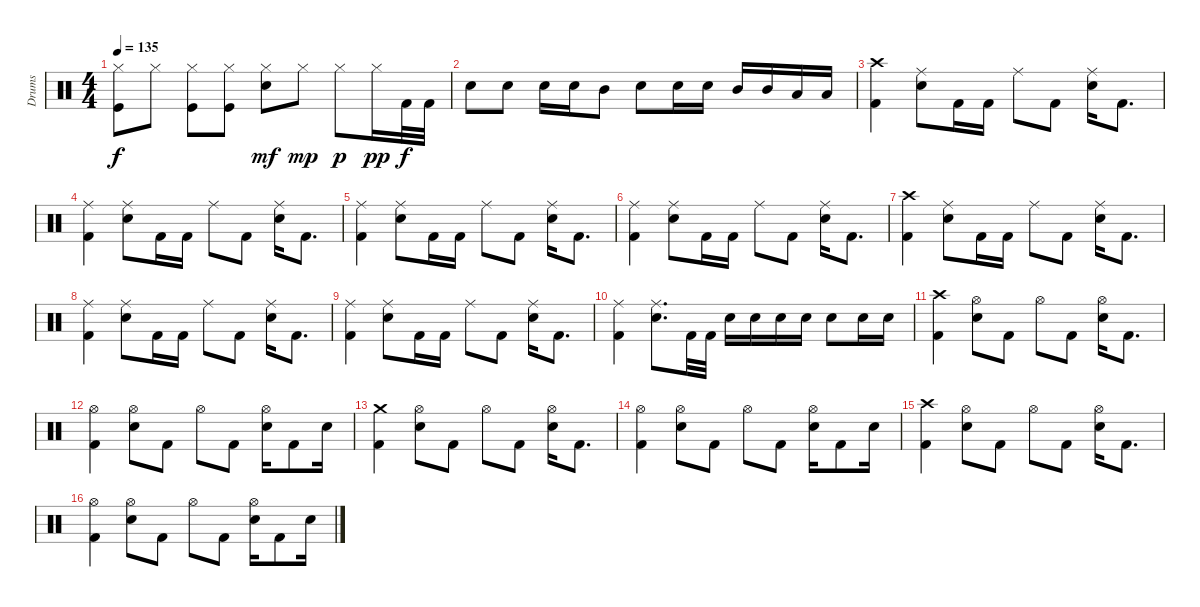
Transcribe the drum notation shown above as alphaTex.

\track ("Drums" "Drums") {instrument percussion}
\staff {score}
\articulation defaults
\ts (4 4)
\tempo 135
\clef neutral
\ks c
("Hi-Hat (closed)" "Kick (hit)").8{dy f} "Hi-Hat (closed)".8 ("Hi-Hat (closed)" "Kick (hit)").8 ("Hi-Hat (closed)" "Kick (hit)").8 ("Hi-Hat (closed)" "Snare (hit) 2").8{dy mf} "Hi-Hat (closed)".8{dy mp} "Hi-Hat (closed)".8{dy p} "Hi-Hat (closed)".16{dy pp} "Kick (hit) 2".32{dy f} "Kick (hit) 2".32 |
"Electric Snare (hit)".8 "Electric Snare (hit)".8 "Electric Snare (hit)".16 "Electric Snare (hit)".16 "Mid Tom (hit)".8 "Electric Snare (hit)".8 "Electric Snare (hit)".16 "Electric Snare (hit)".16 "Mid Tom (hit)".16 "Mid Tom (hit)".16 "Low Tom (hit)".16 "Low Tom (hit)".16 |
("Crash high (hit)" "Kick (hit) 2").4 ("Ride (middle)" "Electric Snare (hit)").8 "Kick (hit) 2".16 "Kick (hit) 2".16 "Ride (middle)".8 "Kick (hit) 2".8 ("Ride (middle)" "Electric Snare (hit)").16 "Kick (hit) 2".8{d} |
("Ride (middle)" "Kick (hit) 2").4 ("Ride (middle)" "Electric Snare (hit)").8 "Kick (hit) 2".16 "Kick (hit) 2".16 "Ride (middle)".8 "Kick (hit) 2".8 ("Ride (middle)" "Electric Snare (hit)").16 "Kick (hit) 2".8{d} |
("Ride (middle)" "Kick (hit) 2").4 ("Ride (middle)" "Electric Snare (hit)").8 "Kick (hit) 2".16 "Kick (hit) 2".16 "Ride (middle)".8 "Kick (hit) 2".8 ("Ride (middle)" "Electric Snare (hit)").16 "Kick (hit) 2".8{d} |
("Ride (middle)" "Kick (hit) 2").4 ("Ride (middle)" "Electric Snare (hit)").8 "Kick (hit) 2".16 "Kick (hit) 2".16 "Ride (middle)".8 "Kick (hit) 2".8 ("Ride (middle)" "Electric Snare (hit)").16 "Kick (hit) 2".8{d} |
("Crash high (hit)" "Kick (hit) 2").4 ("Ride (middle)" "Electric Snare (hit)").8 "Kick (hit) 2".16 "Kick (hit) 2".16 "Ride (middle)".8 "Kick (hit) 2".8 ("Ride (middle)" "Electric Snare (hit)").16 "Kick (hit) 2".8{d} |
("Ride (middle)" "Kick (hit) 2").4 ("Ride (middle)" "Electric Snare (hit)").8 "Kick (hit) 2".16 "Kick (hit) 2".16 "Ride (middle)".8 "Kick (hit) 2".8 ("Ride (middle)" "Electric Snare (hit)").16 "Kick (hit) 2".8{d} |
("Ride (middle)" "Kick (hit) 2").4 ("Ride (middle)" "Electric Snare (hit)").8 "Kick (hit) 2".16 "Kick (hit) 2".16 "Ride (middle)".8 "Kick (hit) 2".8 ("Ride (middle)" "Electric Snare (hit)").16 "Kick (hit) 2".8{d} |
("Ride (middle)" "Kick (hit) 2").4 ("Ride (middle)" "Electric Snare (hit)").8{d} "Kick (hit) 2".32 "Kick (hit) 2".32 "Electric Snare (hit)".16 "Electric Snare (hit)".16 "Electric Snare (hit)".16 "Electric Snare (hit)".16 "Electric Snare (hit)".8 "Electric Snare (hit)".16 "Electric Snare (hit)".16 |
("Crash high (hit)" "Kick (hit) 2").4 ("Hi-Hat (open)" "Electric Snare (hit)").8 "Kick (hit) 2".8 "Hi-Hat (open)".8 "Kick (hit) 2".8 ("Hi-Hat (open)" "Electric Snare (hit)").16 "Kick (hit) 2".8{d} |
("Hi-Hat (open)" "Kick (hit) 2").4 ("Hi-Hat (open)" "Electric Snare (hit)").8 "Kick (hit) 2".8 "Hi-Hat (open)".8 "Kick (hit) 2".8 ("Hi-Hat (open)" "Electric Snare (hit)").16 "Kick (hit) 2".8 "Electric Snare (hit)".16 |
("Crash medium (hit)" "Kick (hit) 2").4 ("Hi-Hat (open)" "Electric Snare (hit)").8 "Kick (hit) 2".8 "Hi-Hat (open)".8 "Kick (hit) 2".8 ("Hi-Hat (open)" "Electric Snare (hit)").16 "Kick (hit) 2".8{d} |
("Hi-Hat (open)" "Kick (hit) 2").4 ("Hi-Hat (open)" "Electric Snare (hit)").8 "Kick (hit) 2".8 "Hi-Hat (open)".8 "Kick (hit) 2".8 ("Hi-Hat (open)" "Electric Snare (hit)").16 "Kick (hit) 2".8 "Electric Snare (hit)".16 |
("Crash high (hit)" "Kick (hit) 2").4 ("Hi-Hat (open)" "Electric Snare (hit)").8 "Kick (hit) 2".8 "Hi-Hat (open)".8 "Kick (hit) 2".8 ("Hi-Hat (open)" "Electric Snare (hit)").16 "Kick (hit) 2".8{d} |
("Hi-Hat (open)" "Kick (hit) 2").4 ("Hi-Hat (open)" "Electric Snare (hit)").8 "Kick (hit) 2".8 "Hi-Hat (open)".8 "Kick (hit) 2".8 ("Hi-Hat (open)" "Electric Snare (hit)").16 "Kick (hit) 2".8 "Electric Snare (hit)".16
